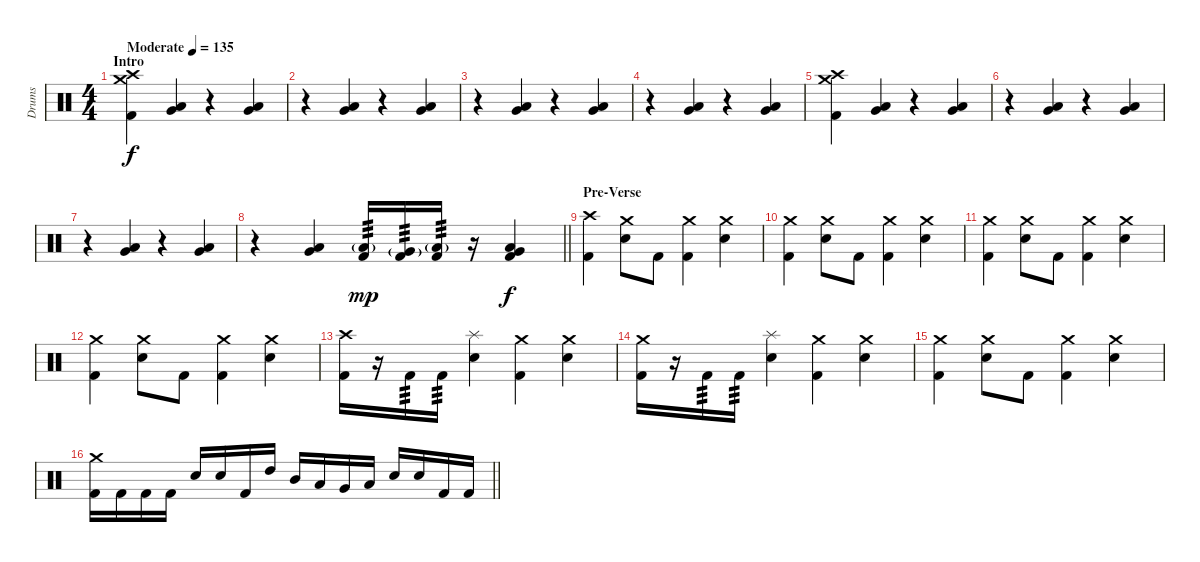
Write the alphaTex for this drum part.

\track ("Drums" "Drums") {instrument percussion}
\staff {score}
\articulation defaults
\ts (4 4)
\section ("" "Intro")
\tempo (135 "Moderate")
\clef neutral
\ks c
("Kick (hit) 2" "Crash medium (hit)" "Crash high (hit)").4{dy f} ("Low Tom (hit)" "Very Low Tom (hit)").4 r.4 ("Low Tom (hit)" "Very Low Tom (hit)").4 |
r.4 ("Low Tom (hit)" "Very Low Tom (hit)").4 r.4 ("Low Tom (hit)" "Very Low Tom (hit)").4 |
r.4 ("Low Tom (hit)" "Very Low Tom (hit)").4 r.4 ("Low Tom (hit)" "Very Low Tom (hit)").4 |
r.4 ("Low Tom (hit)" "Very Low Tom (hit)").4 r.4 ("Low Tom (hit)" "Very Low Tom (hit)").4 |
("Kick (hit) 2" "Crash medium (hit)" "Crash high (hit)").4 ("Low Tom (hit)" "Very Low Tom (hit)").4 r.4 ("Low Tom (hit)" "Very Low Tom (hit)").4 |
r.4 ("Low Tom (hit)" "Very Low Tom (hit)").4 r.4 ("Low Tom (hit)" "Very Low Tom (hit)").4 |
r.4 ("Low Tom (hit)" "Very Low Tom (hit)").4 r.4 ("Low Tom (hit)" "Very Low Tom (hit)").4 |
\barLineRight lightlight
r.4 ("Low Tom (hit)" "Very Low Tom (hit)").4 ("Kick (hit) 2" "Low Tom (hit)"{g}).16{tp 3 dy mp} ("Kick (hit) 2" "Very Low Tom (hit)"{g}).16{tp 3} ("Kick (hit) 2" "Low Floor Tom (hit)"{g}).16{tp 3} r.16 ("Kick (hit) 2" "Low Tom (hit)" "Very Low Tom (hit)").4{dy f} |
\section ("" "Pre-Verse")
("Kick (hit) 2" "Crash high (hit)").4 ("Snare (hit) 2" "Crash medium (hit)").8 "Kick (hit) 2".8 ("Kick (hit) 2" "Crash medium (hit)").4 ("Snare (hit) 2" "Crash medium (hit)").4 |
("Kick (hit) 2" "Crash medium (hit)").4 ("Snare (hit) 2" "Crash medium (hit)").8 "Kick (hit) 2".8 ("Kick (hit) 2" "Crash medium (hit)").4 ("Snare (hit) 2" "Crash medium (hit)").4 |
("Kick (hit) 2" "Crash medium (hit)").4 ("Snare (hit) 2" "Crash medium (hit)").8 "Kick (hit) 2".8 ("Kick (hit) 2" "Crash medium (hit)").4 ("Snare (hit) 2" "Crash medium (hit)").4 |
("Kick (hit) 2" "Crash medium (hit)").4 ("Snare (hit) 2" "Crash medium (hit)").8 "Kick (hit) 2".8 ("Kick (hit) 2" "Crash medium (hit)").4 ("Snare (hit) 2" "Crash medium (hit)").4 |
("Kick (hit) 2" "Crash high (hit)").16 r.16 "Kick (hit) 2".16{tp 3} "Kick (hit) 2".16{tp 3} ("Snare (hit) 2" "Splash (hit)").4 ("Kick (hit) 2" "Crash medium (hit)").4 ("Snare (hit) 2" "Crash medium (hit)").4 |
("Kick (hit) 2" "Crash medium (hit)").16 r.16 "Kick (hit) 2".16{tp 3} "Kick (hit) 2".16{tp 3} ("Snare (hit) 2" "Splash (hit)").4 ("Kick (hit) 2" "Crash medium (hit)").4 ("Snare (hit) 2" "Crash medium (hit)").4 |
("Kick (hit) 2" "Crash medium (hit)").4 ("Snare (hit) 2" "Crash medium (hit)").8 "Kick (hit) 2".8 ("Kick (hit) 2" "Crash medium (hit)").4 ("Snare (hit) 2" "Crash medium (hit)").4 |
\barLineRight lightlight
("Kick (hit) 2" "Crash medium (hit)").16 "Kick (hit) 2".16 "Kick (hit) 2".16 "Kick (hit) 2".16 "Snare (hit) 2".16 "Snare (hit) 2".16 "Kick (hit) 2".16 "High Tom (hit)".16 "Mid Tom (hit)".16 "Low Tom (hit)".16 "Very Low Tom (hit)".16 "Low Floor Tom (hit)".16 "Snare (hit) 2".16 "Snare (hit) 2".16 "Kick (hit) 2".16 "Kick (hit) 2".16
